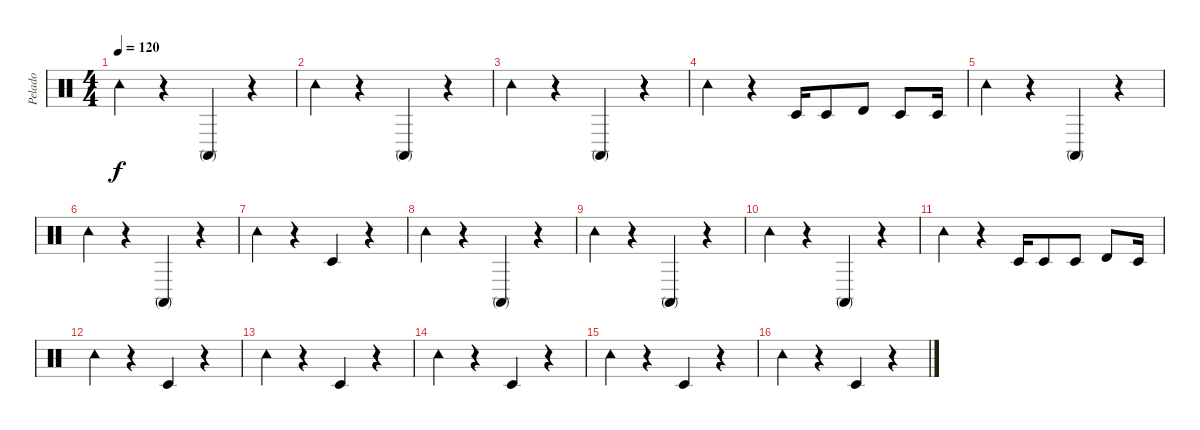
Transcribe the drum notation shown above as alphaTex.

\track ("Pelado" "Pelado") {instrument percussion}
\staff {score}
\articulation defaults
\ts (4 4)
\tempo 120
\clef neutral
\ks c "Tambourine (hit)".4{dy f}
r.4 "Conga high (mute)".4 r.4 |
"Tambourine (hit)".4 r.4 "Conga high (mute)".4 r.4 |
"Tambourine (hit)".4 r.4 "Conga high (mute)".4 r.4 |
"Tambourine (hit)".4 r.4 "Timbale low (hit)".16 "Timbale low (hit)".8 "Timbale high (hit)".8 "Timbale low (hit)".8 "Timbale low (hit)".16 |
"Tambourine (hit)".4 r.4 "Conga high (mute)".4 r.4 |
"Tambourine (hit)".4 r.4 "Conga high (mute)".4 r.4 |
"Tambourine (hit)".4 r.4 "Timbale low (hit)".4 r.4 |
"Tambourine (hit)".4 r.4 "Conga high (mute)".4 r.4 |
"Tambourine (hit)".4 r.4 "Conga high (mute)".4 r.4 |
"Tambourine (hit)".4 r.4 "Conga high (mute)".4 r.4 |
"Tambourine (hit)".4 r.4 "Timbale low (hit)".16 "Timbale low (hit)".8 "Timbale low (hit)".8 "Timbale high (hit)".8 "Timbale low (hit)".16 |
"Tambourine (hit)".4 r.4 "Timbale low (hit)".4 r.4 |
"Tambourine (hit)".4 r.4 "Timbale low (hit)".4 r.4 |
"Tambourine (hit)".4 r.4 "Timbale low (hit)".4 r.4 |
"Tambourine (hit)".4 r.4 "Timbale low (hit)".4 r.4 |
"Tambourine (hit)".4 r.4 "Timbale low (hit)".4 r.4
